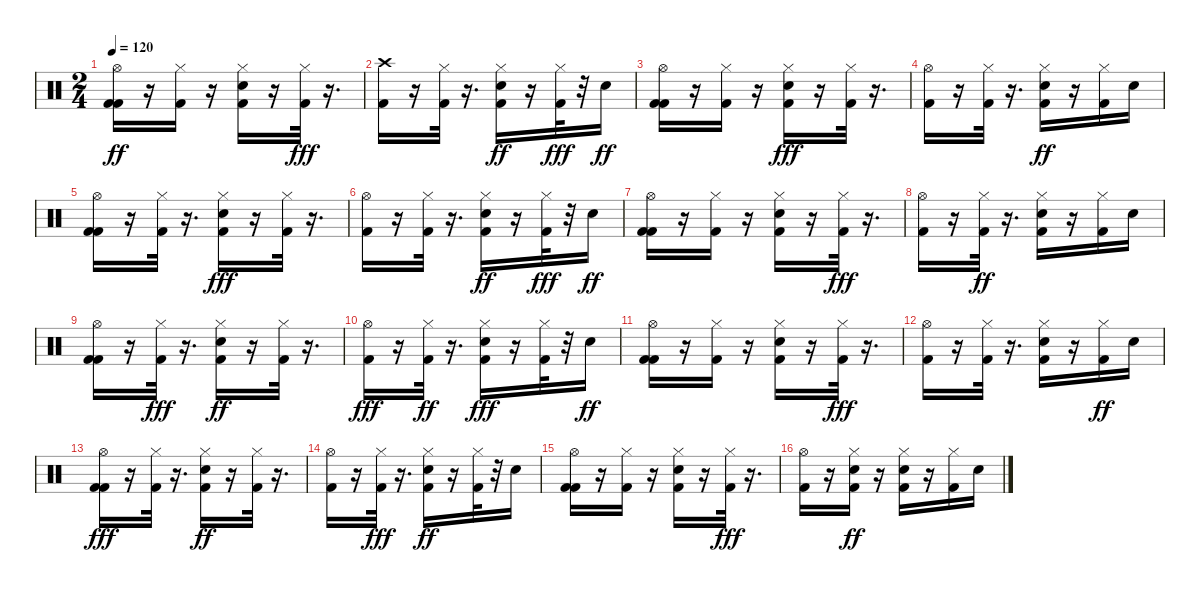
\track "" {instrument percussion}
\staff {score}
\articulation defaults
\ts (2 4)
\tempo 120
\clef neutral
\ks c
("Hi-Hat (open)" "Kick (hit) 2" "Kick (hit) 2").16{dy ff} r.16 ("Hi-Hat (closed)" "Kick (hit) 2").16 r.16 ("Snare (hit) 2" "Hi-Hat (closed)" "Kick (hit) 2").16 r.16 ("Kick (hit) 2" "Hi-Hat (closed)").32{dy fff} r.16{d} |
("Kick (hit) 2" "Crash high (hit)").16 r.16 ("Kick (hit) 2" "Hi-Hat (closed)").32 r.16{d} ("Kick (hit) 2" "Hi-Hat (closed)" "Snare (hit) 2").16{dy ff} r.16 ("Kick (hit) 2" "Hi-Hat (closed)").32{dy fff} r.32 "Snare (hit) 2".16{dy ff} |
("Kick (hit) 2" "Hi-Hat (open)" "Kick (hit) 2").16 r.16 ("Hi-Hat (closed)" "Kick (hit) 2").16 r.16 ("Kick (hit) 2" "Snare (hit) 2" "Hi-Hat (closed)").16{dy fff} r.16 ("Kick (hit) 2" "Hi-Hat (closed)").32 r.16{d} |
("Kick (hit) 2" "Hi-Hat (open)").16 r.16 ("Kick (hit) 2" "Hi-Hat (closed)").32 r.16{d} ("Snare (hit) 2" "Hi-Hat (closed)" "Kick (hit) 2").16{dy ff} r.16 ("Hi-Hat (closed)" "Kick (hit) 2").16 "Snare (hit) 2".16 |
("Hi-Hat (open)" "Kick (hit) 2" "Kick (hit) 2").16 r.16 ("Hi-Hat (closed)" "Kick (hit) 2").32 r.16{d} ("Snare (hit) 2" "Kick (hit) 2" "Hi-Hat (closed)").16{dy fff} r.16 ("Kick (hit) 2" "Hi-Hat (closed)").32 r.16{d} |
("Kick (hit) 2" "Hi-Hat (open)").16 r.16 ("Kick (hit) 2" "Hi-Hat (closed)").32 r.16{d} ("Snare (hit) 2" "Hi-Hat (closed)" "Kick (hit) 2").16{dy ff} r.16 ("Kick (hit) 2" "Hi-Hat (closed)").32{dy fff} r.32 "Snare (hit) 2".16{dy ff} |
("Kick (hit) 2" "Hi-Hat (open)" "Kick (hit) 2").16 r.16 ("Hi-Hat (closed)" "Kick (hit) 2").16 r.16 ("Hi-Hat (closed)" "Kick (hit) 2" "Snare (hit) 2").16 r.16 ("Kick (hit) 2" "Hi-Hat (closed)").32{dy fff} r.16{d} |
("Kick (hit) 2" "Hi-Hat (open)").16 r.16 ("Hi-Hat (closed)" "Kick (hit) 2").32{dy ff} r.16{d} ("Hi-Hat (closed)" "Kick (hit) 2" "Snare (hit) 2").16 r.16 ("Hi-Hat (closed)" "Kick (hit) 2").16 "Snare (hit) 2".16 |
("Kick (hit) 2" "Hi-Hat (open)" "Kick (hit) 2").16 r.16 ("Kick (hit) 2" "Hi-Hat (closed)").32{dy fff} r.16{d} ("Hi-Hat (closed)" "Kick (hit) 2" "Snare (hit) 2").16{dy ff} r.16 ("Hi-Hat (closed)" "Kick (hit) 2").32 r.16{d} |
("Kick (hit) 2" "Hi-Hat (open)").16{dy fff} r.16 ("Hi-Hat (closed)" "Kick (hit) 2").32{dy ff} r.16{d} ("Snare (hit) 2" "Kick (hit) 2" "Hi-Hat (closed)").16{dy fff} r.16 ("Kick (hit) 2" "Hi-Hat (closed)").32 r.32 "Snare (hit) 2".16{dy ff} |
("Hi-Hat (open)" "Kick (hit) 2" "Kick (hit) 2").16 r.16 ("Hi-Hat (closed)" "Kick (hit) 2").16 r.16 ("Kick (hit) 2" "Hi-Hat (closed)" "Snare (hit) 2").16 r.16 ("Kick (hit) 2" "Hi-Hat (closed)").32{dy fff} r.16{d} |
("Kick (hit) 2" "Hi-Hat (open)").16 r.16 ("Kick (hit) 2" "Hi-Hat (closed)").32 r.16{d} ("Snare (hit) 2" "Kick (hit) 2" "Hi-Hat (closed)").16 r.16 ("Hi-Hat (closed)" "Kick (hit) 2").16{dy ff} "Snare (hit) 2".16 |
("Kick (hit) 2" "Kick (hit) 2" "Hi-Hat (open)").16{dy fff} r.16 ("Kick (hit) 2" "Hi-Hat (closed)").32 r.16{d} ("Hi-Hat (closed)" "Snare (hit) 2" "Kick (hit) 2").16{dy ff} r.16 ("Hi-Hat (closed)" "Kick (hit) 2").32 r.16{d} |
("Hi-Hat (open)" "Kick (hit) 2").16 r.16 ("Kick (hit) 2" "Hi-Hat (closed)").32{dy fff} r.16{d} ("Snare (hit) 2" "Hi-Hat (closed)" "Kick (hit) 2").16{dy ff} r.16 ("Hi-Hat (closed)" "Kick (hit) 2").32 r.32 "Snare (hit) 2".16 |
("Kick (hit) 2" "Hi-Hat (open)" "Kick (hit) 2").16 r.16 ("Hi-Hat (closed)" "Kick (hit) 2").16 r.16 ("Hi-Hat (closed)" "Kick (hit) 2" "Snare (hit) 2").16 r.16 ("Kick (hit) 2" "Hi-Hat (closed)").32{dy fff} r.16{d} |
("Kick (hit) 2" "Hi-Hat (open)").16 r.16 ("Snare (hit) 2" "Hi-Hat (closed)" "Kick (hit) 2").16{dy ff} r.16 ("Kick (hit) 2" "Hi-Hat (closed)" "Snare (hit) 2").16 r.16 ("Hi-Hat (closed)" "Kick (hit) 2").16 "Snare (hit) 2".16
